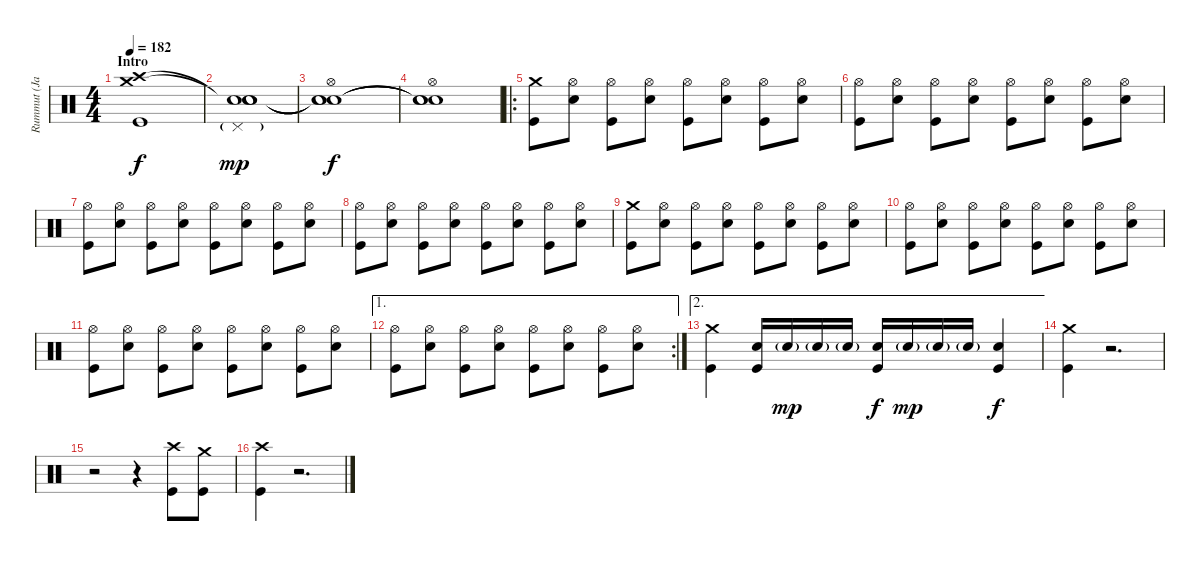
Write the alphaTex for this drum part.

\track ("Rummut (Janne)" "Rummut (Ja") {instrument percussion}
\staff {score}
\articulation defaults
\ts (4 4)
\section ("" "Intro")
\tempo 182
\clef neutral
\ks c
("Crash medium (hit)" "Crash high (hit)" "Kick (hit)").1{dy f} |
("Snare (hit)"{t} "Snare (hit)"{t} "Pedal Hi-Hat (hit)"{g} "Snare (hit)").1{dy mp} |
("Snare (hit)"{t} "Snare (hit)"{t} "Hi-Hat (open)" "Snare (hit)"{t}).1{dy f} |
("Snare (hit)"{t} "Snare (hit)"{t} "Hi-Hat (open)" "Snare (hit)"{t}).1 |
\ro
("Crash medium (hit)" "Kick (hit)").8 ("Hi-Hat (open)" "Snare (hit) 2").8 ("Hi-Hat (open)" "Kick (hit)").8 ("Hi-Hat (open)" "Snare (hit) 2").8 ("Hi-Hat (open)" "Kick (hit)").8 ("Hi-Hat (open)" "Snare (hit) 2").8 ("Hi-Hat (open)" "Kick (hit)").8 ("Hi-Hat (open)" "Snare (hit) 2").8 |
("Hi-Hat (open)" "Kick (hit)").8 ("Hi-Hat (open)" "Snare (hit) 2").8 ("Hi-Hat (open)" "Kick (hit)").8 ("Hi-Hat (open)" "Snare (hit) 2").8 ("Hi-Hat (open)" "Kick (hit)").8 ("Hi-Hat (open)" "Snare (hit) 2").8 ("Hi-Hat (open)" "Kick (hit)").8 ("Hi-Hat (open)" "Snare (hit) 2").8 |
("Hi-Hat (open)" "Kick (hit)").8 ("Hi-Hat (open)" "Snare (hit) 2").8 ("Hi-Hat (open)" "Kick (hit)").8 ("Hi-Hat (open)" "Snare (hit) 2").8 ("Hi-Hat (open)" "Kick (hit)").8 ("Hi-Hat (open)" "Snare (hit) 2").8 ("Hi-Hat (open)" "Kick (hit)").8 ("Hi-Hat (open)" "Snare (hit) 2").8 |
("Hi-Hat (open)" "Kick (hit)").8 ("Hi-Hat (open)" "Snare (hit) 2").8 ("Hi-Hat (open)" "Kick (hit)").8 ("Hi-Hat (open)" "Snare (hit) 2").8 ("Hi-Hat (open)" "Kick (hit)").8 ("Hi-Hat (open)" "Snare (hit) 2").8 ("Hi-Hat (open)" "Kick (hit)").8 ("Hi-Hat (open)" "Snare (hit) 2").8 |
("Crash medium (hit)" "Kick (hit)").8 ("Hi-Hat (open)" "Snare (hit) 2").8 ("Hi-Hat (open)" "Kick (hit)").8 ("Hi-Hat (open)" "Snare (hit) 2").8 ("Hi-Hat (open)" "Kick (hit)").8 ("Hi-Hat (open)" "Snare (hit) 2").8 ("Hi-Hat (open)" "Kick (hit)").8 ("Hi-Hat (open)" "Snare (hit) 2").8 |
("Hi-Hat (open)" "Kick (hit)").8 ("Hi-Hat (open)" "Snare (hit) 2").8 ("Hi-Hat (open)" "Kick (hit)").8 ("Hi-Hat (open)" "Snare (hit) 2").8 ("Hi-Hat (open)" "Kick (hit)").8 ("Hi-Hat (open)" "Snare (hit) 2").8 ("Hi-Hat (open)" "Kick (hit)").8 ("Hi-Hat (open)" "Snare (hit) 2").8 |
("Hi-Hat (open)" "Kick (hit)").8 ("Hi-Hat (open)" "Snare (hit) 2").8 ("Hi-Hat (open)" "Kick (hit)").8 ("Hi-Hat (open)" "Snare (hit) 2").8 ("Hi-Hat (open)" "Kick (hit)").8 ("Hi-Hat (open)" "Snare (hit) 2").8 ("Hi-Hat (open)" "Kick (hit)").8 ("Hi-Hat (open)" "Snare (hit) 2").8 |
\ae 1
\rc 2
("Hi-Hat (open)" "Kick (hit)").8 ("Hi-Hat (open)" "Snare (hit) 2").8 ("Hi-Hat (open)" "Kick (hit)").8 ("Hi-Hat (open)" "Snare (hit) 2").8 ("Hi-Hat (open)" "Kick (hit)").8 ("Hi-Hat (open)" "Snare (hit) 2").8 ("Hi-Hat (open)" "Kick (hit)").8 ("Hi-Hat (open)" "Snare (hit) 2").8 |
\ae 2
("Crash medium (hit)" "Kick (hit)").4 ("Snare (hit) 2" "Kick (hit)").16 "Snare (hit) 2"{g}.16{dy mp} "Snare (hit) 2"{g}.16 "Snare (hit) 2"{g}.16 ("Snare (hit) 2" "Kick (hit)").16{dy f} "Snare (hit) 2"{g}.16{dy mp} "Snare (hit) 2"{g}.16 "Snare (hit) 2"{g}.16 ("Snare (hit) 2" "Kick (hit)").4{dy f} |
("Crash medium (hit)" "Kick (hit)").4 r.2{d} |
r.2 r.4 ("Crash high (hit)" "Kick (hit)").8 ("Crash medium (hit)" "Kick (hit)").8 |
("Crash high (hit)" "Kick (hit)").4 r.2{d}
